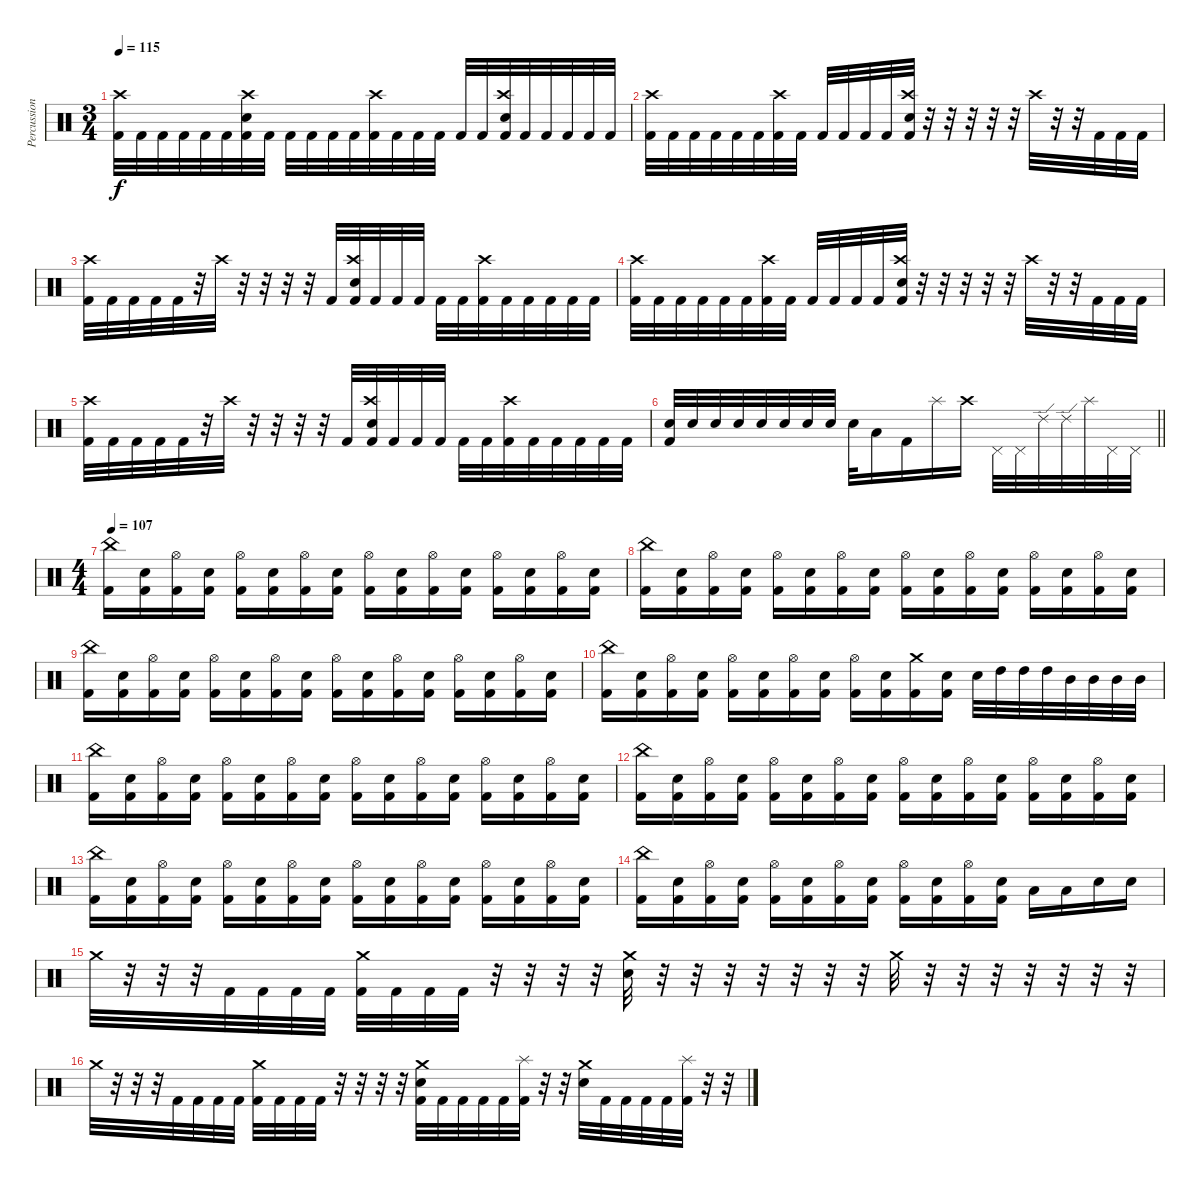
\track ("Percussion" "Percussion") {instrument percussion}
\staff {score}
\articulation defaults
\ts (3 4)
\tempo 115
\clef neutral
\ks c
("Kick (hit) 2" "Crash high (hit)").32{dy f} "Kick (hit) 2".32 "Kick (hit) 2".32 "Kick (hit) 2".32 "Kick (hit) 2".32 "Kick (hit) 2".32 ("Kick (hit) 2" "Crash high (hit)" "Electric Snare (hit)").32 "Kick (hit) 2".32 "Kick (hit) 2".32 "Kick (hit) 2".32 "Kick (hit) 2".32 "Kick (hit) 2".32 ("Kick (hit) 2" "Crash high (hit)").32 "Kick (hit) 2".32 "Kick (hit) 2".32 "Kick (hit) 2".32 "Kick (hit) 2".32 "Kick (hit) 2".32 ("Kick (hit) 2" "Electric Snare (hit)" "Crash high (hit)").32 "Kick (hit) 2".32 "Kick (hit) 2".32 "Kick (hit) 2".32 "Kick (hit) 2".32 "Kick (hit) 2".32 |
("Kick (hit) 2" "Crash high (hit)").32 "Kick (hit) 2".32 "Kick (hit) 2".32 "Kick (hit) 2".32 "Kick (hit) 2".32 "Kick (hit) 2".32 ("Kick (hit) 2" "Crash high (hit)").32 "Kick (hit) 2".32 "Kick (hit) 2".32 "Kick (hit) 2".32 "Kick (hit) 2".32 "Kick (hit) 2".32 ("Kick (hit) 2" "Electric Snare (hit)" "Crash high (hit)").32 r.32 r.32 r.32 r.32 r.32 "Crash high (hit)".32 r.32 r.32 "Kick (hit) 2".32 "Kick (hit) 2".32 "Kick (hit) 2".32 |
("Kick (hit) 2" "Crash high (hit)").32 "Kick (hit) 2".32 "Kick (hit) 2".32 "Kick (hit) 2".32 "Kick (hit) 2".32 r.32 "Crash high (hit)".32 r.32 r.32 r.32 r.32 "Kick (hit) 2".32 ("Kick (hit) 2" "Electric Snare (hit)" "Crash high (hit)").32 "Kick (hit) 2".32 "Kick (hit) 2".32 "Kick (hit) 2".32 "Kick (hit) 2".32 "Kick (hit) 2".32 ("Kick (hit) 2" "Crash high (hit)").32 "Kick (hit) 2".32 "Kick (hit) 2".32 "Kick (hit) 2".32 "Kick (hit) 2".32 "Kick (hit) 2".32 |
("Kick (hit) 2" "Crash high (hit)").32 "Kick (hit) 2".32 "Kick (hit) 2".32 "Kick (hit) 2".32 "Kick (hit) 2".32 "Kick (hit) 2".32 ("Kick (hit) 2" "Crash high (hit)").32 "Kick (hit) 2".32 "Kick (hit) 2".32 "Kick (hit) 2".32 "Kick (hit) 2".32 "Kick (hit) 2".32 ("Kick (hit) 2" "Electric Snare (hit)" "Crash high (hit)").32 r.32 r.32 r.32 r.32 r.32 "Crash high (hit)".32 r.32 r.32 "Kick (hit) 2".32 "Kick (hit) 2".32 "Kick (hit) 2".32 |
("Kick (hit) 2" "Crash high (hit)").32 "Kick (hit) 2".32 "Kick (hit) 2".32 "Kick (hit) 2".32 "Kick (hit) 2".32 r.32 "Crash high (hit)".32 r.32 r.32 r.32 r.32 "Kick (hit) 2".32 ("Kick (hit) 2" "Electric Snare (hit)" "Crash high (hit)").32 "Kick (hit) 2".32 "Kick (hit) 2".32 "Kick (hit) 2".32 "Kick (hit) 2".32 "Kick (hit) 2".32 ("Kick (hit) 2" "Crash high (hit)").32 "Kick (hit) 2".32 "Kick (hit) 2".32 "Kick (hit) 2".32 "Kick (hit) 2".32 "Kick (hit) 2".32 |
\barLineRight lightlight
("Kick (hit) 2" "Electric Snare (hit)").32 "Electric Snare (hit)".32 "Electric Snare (hit)".32 "Electric Snare (hit)".32 "Electric Snare (hit)".32 "Electric Snare (hit)".32 "Electric Snare (hit)".32 "Electric Snare (hit)".32 "Electric Snare (hit)".32 "Low Tom (hit)".16 "Kick (hit) 2".16 "Splash (hit)".16 "Crash high (hit)".16 "Pedal Hi-Hat (hit)".32 "Pedal Hi-Hat (hit)".32 "Ride (edge) 2".32 "Ride (edge) 2".32 "Splash (hit)".32 "Pedal Hi-Hat (hit)".32 "Pedal Hi-Hat (hit)".32 |
\ts (4 4)
\tempo 107
("Kick (hit) 2" "China (hit)").16 ("Kick (hit) 2" "Electric Snare (hit)").16 ("Kick (hit) 2" "Hi-Hat (open)").16 ("Kick (hit) 2" "Electric Snare (hit)").16 ("Kick (hit) 2" "Hi-Hat (open)").16 ("Kick (hit) 2" "Electric Snare (hit)").16 ("Kick (hit) 2" "Hi-Hat (open)").16 ("Kick (hit) 2" "Electric Snare (hit)").16 ("Kick (hit) 2" "Hi-Hat (open)").16 ("Kick (hit) 2" "Electric Snare (hit)").16 ("Kick (hit) 2" "Hi-Hat (open)").16 ("Kick (hit) 2" "Electric Snare (hit)").16 ("Kick (hit) 2" "Hi-Hat (open)").16 ("Kick (hit) 2" "Electric Snare (hit)").16 ("Kick (hit) 2" "Hi-Hat (open)").16 ("Kick (hit) 2" "Electric Snare (hit)").16 |
("Kick (hit) 2" "China (hit)").16 ("Kick (hit) 2" "Electric Snare (hit)").16 ("Kick (hit) 2" "Hi-Hat (open)").16 ("Kick (hit) 2" "Electric Snare (hit)").16 ("Kick (hit) 2" "Hi-Hat (open)").16 ("Kick (hit) 2" "Electric Snare (hit)").16 ("Kick (hit) 2" "Hi-Hat (open)").16 ("Kick (hit) 2" "Electric Snare (hit)").16 ("Kick (hit) 2" "Hi-Hat (open)").16 ("Kick (hit) 2" "Electric Snare (hit)").16 ("Kick (hit) 2" "Hi-Hat (open)").16 ("Kick (hit) 2" "Electric Snare (hit)").16 ("Kick (hit) 2" "Hi-Hat (open)").16 ("Kick (hit) 2" "Electric Snare (hit)").16 ("Kick (hit) 2" "Hi-Hat (open)").16 ("Kick (hit) 2" "Electric Snare (hit)").16 |
("Kick (hit) 2" "China (hit)").16 ("Kick (hit) 2" "Electric Snare (hit)").16 ("Kick (hit) 2" "Hi-Hat (open)").16 ("Kick (hit) 2" "Electric Snare (hit)").16 ("Kick (hit) 2" "Hi-Hat (open)").16 ("Kick (hit) 2" "Electric Snare (hit)").16 ("Kick (hit) 2" "Hi-Hat (open)").16 ("Kick (hit) 2" "Electric Snare (hit)").16 ("Kick (hit) 2" "Hi-Hat (open)").16 ("Kick (hit) 2" "Electric Snare (hit)").16 ("Kick (hit) 2" "Hi-Hat (open)").16 ("Kick (hit) 2" "Electric Snare (hit)").16 ("Kick (hit) 2" "Hi-Hat (open)").16 ("Kick (hit) 2" "Electric Snare (hit)").16 ("Kick (hit) 2" "Hi-Hat (open)").16 ("Kick (hit) 2" "Electric Snare (hit)").16 |
("Kick (hit) 2" "China (hit)").16 ("Kick (hit) 2" "Electric Snare (hit)").16 ("Kick (hit) 2" "Hi-Hat (open)").16 ("Kick (hit) 2" "Electric Snare (hit)").16 ("Kick (hit) 2" "Hi-Hat (open)").16 ("Kick (hit) 2" "Electric Snare (hit)").16 ("Kick (hit) 2" "Hi-Hat (open)").16 ("Kick (hit) 2" "Electric Snare (hit)").16 ("Kick (hit) 2" "Hi-Hat (open)").16 ("Kick (hit) 2" "Electric Snare (hit)").16 ("Kick (hit) 2" "Crash medium (hit)").16 ("Kick (hit) 2" "Electric Snare (hit)").16 "Electric Snare (hit)".32 "High Tom (hit)".32 "High Tom (hit)".32 "High Tom (hit)".32 "Mid Tom (hit)".32 "Mid Tom (hit)".32 "Mid Tom (hit)".32 "Mid Tom (hit)".32 |
("Kick (hit) 2" "China (hit)").16 ("Kick (hit) 2" "Electric Snare (hit)").16 ("Kick (hit) 2" "Hi-Hat (open)").16 ("Kick (hit) 2" "Electric Snare (hit)").16 ("Kick (hit) 2" "Hi-Hat (open)").16 ("Kick (hit) 2" "Electric Snare (hit)").16 ("Kick (hit) 2" "Hi-Hat (open)").16 ("Kick (hit) 2" "Electric Snare (hit)").16 ("Kick (hit) 2" "Hi-Hat (open)").16 ("Kick (hit) 2" "Electric Snare (hit)").16 ("Kick (hit) 2" "Hi-Hat (open)").16 ("Kick (hit) 2" "Electric Snare (hit)").16 ("Kick (hit) 2" "Hi-Hat (open)").16 ("Kick (hit) 2" "Electric Snare (hit)").16 ("Kick (hit) 2" "Hi-Hat (open)").16 ("Kick (hit) 2" "Electric Snare (hit)").16 |
("Kick (hit) 2" "China (hit)").16 ("Kick (hit) 2" "Electric Snare (hit)").16 ("Kick (hit) 2" "Hi-Hat (open)").16 ("Kick (hit) 2" "Electric Snare (hit)").16 ("Kick (hit) 2" "Hi-Hat (open)").16 ("Kick (hit) 2" "Electric Snare (hit)").16 ("Kick (hit) 2" "Hi-Hat (open)").16 ("Kick (hit) 2" "Electric Snare (hit)").16 ("Kick (hit) 2" "Hi-Hat (open)").16 ("Kick (hit) 2" "Electric Snare (hit)").16 ("Kick (hit) 2" "Hi-Hat (open)").16 ("Kick (hit) 2" "Electric Snare (hit)").16 ("Kick (hit) 2" "Hi-Hat (open)").16 ("Kick (hit) 2" "Electric Snare (hit)").16 ("Kick (hit) 2" "Hi-Hat (open)").16 ("Kick (hit) 2" "Electric Snare (hit)").16 |
("Kick (hit) 2" "China (hit)").16 ("Kick (hit) 2" "Electric Snare (hit)").16 ("Kick (hit) 2" "Hi-Hat (open)").16 ("Kick (hit) 2" "Electric Snare (hit)").16 ("Kick (hit) 2" "Hi-Hat (open)").16 ("Kick (hit) 2" "Electric Snare (hit)").16 ("Kick (hit) 2" "Hi-Hat (open)").16 ("Kick (hit) 2" "Electric Snare (hit)").16 ("Kick (hit) 2" "Hi-Hat (open)").16 ("Kick (hit) 2" "Electric Snare (hit)").16 ("Kick (hit) 2" "Hi-Hat (open)").16 ("Kick (hit) 2" "Electric Snare (hit)").16 ("Kick (hit) 2" "Hi-Hat (open)").16 ("Kick (hit) 2" "Electric Snare (hit)").16 ("Kick (hit) 2" "Hi-Hat (open)").16 ("Kick (hit) 2" "Electric Snare (hit)").16 |
("Kick (hit) 2" "China (hit)").16 ("Kick (hit) 2" "Electric Snare (hit)").16 ("Kick (hit) 2" "Hi-Hat (open)").16 ("Kick (hit) 2" "Electric Snare (hit)").16 ("Kick (hit) 2" "Hi-Hat (open)").16 ("Kick (hit) 2" "Electric Snare (hit)").16 ("Kick (hit) 2" "Hi-Hat (open)").16 ("Kick (hit) 2" "Electric Snare (hit)").16 ("Kick (hit) 2" "Hi-Hat (open)").16 ("Kick (hit) 2" "Electric Snare (hit)").16 ("Kick (hit) 2" "Hi-Hat (open)").16 ("Kick (hit) 2" "Electric Snare (hit)").16 "Low Tom (hit)".16 "Low Floor Tom (hit)".16 "Electric Snare (hit)".16 "Electric Snare (hit)".16 |
"Crash medium (hit)".32 r.32 r.32 r.32 "Kick (hit) 2".32 "Kick (hit) 2".32 "Kick (hit) 2".32 "Kick (hit) 2".32 ("Kick (hit) 2" "Crash medium (hit)").32 "Kick (hit) 2".32 "Kick (hit) 2".32 "Kick (hit) 2".32 r.32 r.32 r.32 r.32 ("Electric Snare (hit)" "Crash medium (hit)").32 r.32 r.32 r.32 r.32 r.32 r.32 r.32 "Crash medium (hit)".32 r.32 r.32 r.32 r.32 r.32 r.32 r.32 |
"Crash medium (hit)".32 r.32 r.32 r.32 "Kick (hit) 2".32 "Kick (hit) 2".32 "Kick (hit) 2".32 "Kick (hit) 2".32 ("Kick (hit) 2" "Crash medium (hit)").32 "Kick (hit) 2".32 "Kick (hit) 2".32 "Kick (hit) 2".32 r.32 r.32 r.32 r.32 ("Kick (hit) 2" "Electric Snare (hit)" "Crash medium (hit)").32 "Kick (hit) 2".32 "Kick (hit) 2".32 "Kick (hit) 2".32 "Kick (hit) 2".32 ("Kick (hit) 2" "Splash (hit)").32 r.32 r.32 ("Electric Snare (hit)" "Crash medium (hit)").32 "Kick (hit) 2".32 "Kick (hit) 2".32 "Kick (hit) 2".32 "Kick (hit) 2".32 ("Kick (hit) 2" "Splash (hit)").32 r.32 r.32
